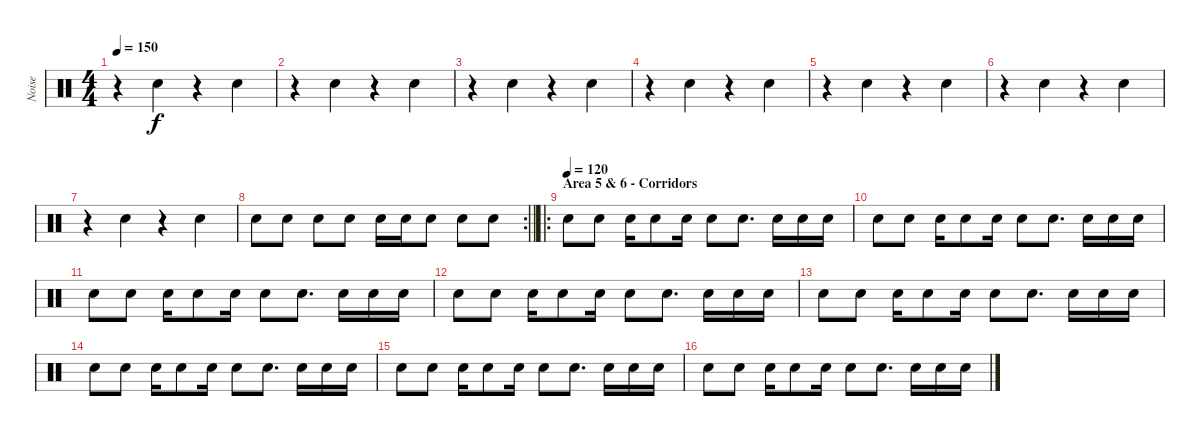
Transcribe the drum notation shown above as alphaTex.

\track ("Noise" "Noise") {instrument percussion}
\staff {score}
\articulation defaults
\ts (4 4)
\tempo 150
\clef neutral
\ks c
r.4{dy f} "Snare (hit) 2".4 r.4 "Snare (hit) 2".4 |
r.4 "Snare (hit) 2".4 r.4 "Snare (hit) 2".4 |
r.4 "Snare (hit) 2".4 r.4 "Snare (hit) 2".4 |
r.4 "Snare (hit) 2".4 r.4 "Snare (hit) 2".4 |
r.4 "Snare (hit) 2".4 r.4 "Snare (hit) 2".4 |
r.4 "Snare (hit) 2".4 r.4 "Snare (hit) 2".4 |
r.4 "Snare (hit) 2".4 r.4 "Snare (hit) 2".4 |
\rc 2
\barLineRight lightlight "Snare (hit) 2".8 "Snare (hit) 2".8 "Snare (hit) 2".8 "Snare (hit) 2".8 "Snare (hit) 2".16 "Snare (hit) 2".16 "Snare (hit) 2".8 "Snare (hit) 2".8 "Snare (hit) 2".8
|
\ro
\section ("" "Area 5 & 6 - Corridors")
\tempo (120)
"Snare (hit) 2".8{volume 13} "Snare (hit) 2".8 "Snare (hit) 2".16 "Snare (hit) 2".8 "Snare (hit) 2".16 "Snare (hit) 2".8 "Snare (hit) 2".8{d} "Snare (hit) 2".16 "Snare (hit) 2".16 "Snare (hit) 2".16 |
"Snare (hit) 2".8 "Snare (hit) 2".8 "Snare (hit) 2".16 "Snare (hit) 2".8 "Snare (hit) 2".16 "Snare (hit) 2".8 "Snare (hit) 2".8{d} "Snare (hit) 2".16 "Snare (hit) 2".16 "Snare (hit) 2".16 |
"Snare (hit) 2".8 "Snare (hit) 2".8 "Snare (hit) 2".16 "Snare (hit) 2".8 "Snare (hit) 2".16 "Snare (hit) 2".8 "Snare (hit) 2".8{d} "Snare (hit) 2".16 "Snare (hit) 2".16 "Snare (hit) 2".16 |
"Snare (hit) 2".8 "Snare (hit) 2".8 "Snare (hit) 2".16 "Snare (hit) 2".8 "Snare (hit) 2".16 "Snare (hit) 2".8 "Snare (hit) 2".8{d} "Snare (hit) 2".16 "Snare (hit) 2".16 "Snare (hit) 2".16 |
"Snare (hit) 2".8 "Snare (hit) 2".8 "Snare (hit) 2".16 "Snare (hit) 2".8 "Snare (hit) 2".16 "Snare (hit) 2".8 "Snare (hit) 2".8{d} "Snare (hit) 2".16 "Snare (hit) 2".16 "Snare (hit) 2".16 |
"Snare (hit) 2".8 "Snare (hit) 2".8 "Snare (hit) 2".16 "Snare (hit) 2".8 "Snare (hit) 2".16 "Snare (hit) 2".8 "Snare (hit) 2".8{d} "Snare (hit) 2".16 "Snare (hit) 2".16 "Snare (hit) 2".16 |
"Snare (hit) 2".8 "Snare (hit) 2".8 "Snare (hit) 2".16 "Snare (hit) 2".8 "Snare (hit) 2".16 "Snare (hit) 2".8 "Snare (hit) 2".8{d} "Snare (hit) 2".16 "Snare (hit) 2".16 "Snare (hit) 2".16 |
"Snare (hit) 2".8 "Snare (hit) 2".8 "Snare (hit) 2".16 "Snare (hit) 2".8 "Snare (hit) 2".16 "Snare (hit) 2".8 "Snare (hit) 2".8{d} "Snare (hit) 2".16 "Snare (hit) 2".16 "Snare (hit) 2".16
